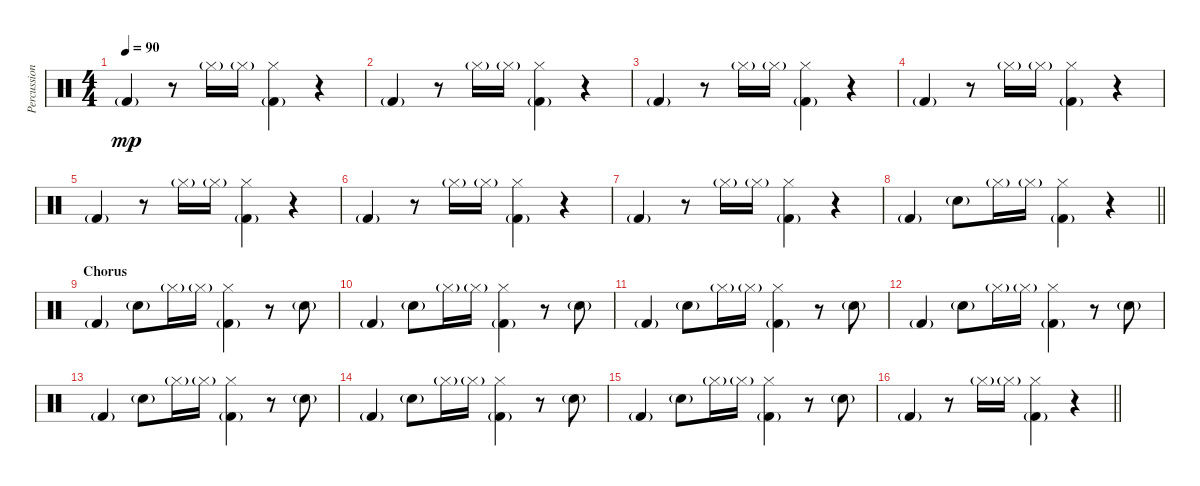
\track ("Percussion" "Percussion") {instrument percussion}
\staff {score}
\articulation defaults
\ts (4 4)
\tempo 90
\clef neutral
\ks c "Kick (hit) 2"{g}.4{dy mp}
r.8 "Hi-Hat (closed)"{g}.16 "Hi-Hat (closed)"{g}.16 ("Hi-Hat (closed)" "Kick (hit) 2"{g}).4 r.4 |
"Kick (hit) 2"{g}.4 r.8 "Hi-Hat (closed)"{g}.16 "Hi-Hat (closed)"{g}.16 ("Hi-Hat (closed)" "Kick (hit) 2"{g}).4 r.4 |
"Kick (hit) 2"{g}.4 r.8 "Hi-Hat (closed)"{g}.16 "Hi-Hat (closed)"{g}.16 ("Hi-Hat (closed)" "Kick (hit) 2"{g}).4 r.4 |
"Kick (hit) 2"{g}.4 r.8 "Hi-Hat (closed)"{g}.16 "Hi-Hat (closed)"{g}.16 ("Hi-Hat (closed)" "Kick (hit) 2"{g}).4 r.4 |
"Kick (hit) 2"{g}.4 r.8 "Hi-Hat (closed)"{g}.16 "Hi-Hat (closed)"{g}.16 ("Hi-Hat (closed)" "Kick (hit) 2"{g}).4 r.4 |
"Kick (hit) 2"{g}.4 r.8 "Hi-Hat (closed)"{g}.16 "Hi-Hat (closed)"{g}.16 ("Hi-Hat (closed)" "Kick (hit) 2"{g}).4 r.4 |
"Kick (hit) 2"{g}.4 r.8 "Hi-Hat (closed)"{g}.16 "Hi-Hat (closed)"{g}.16 ("Hi-Hat (closed)" "Kick (hit) 2"{g}).4 r.4 |
\barLineRight lightlight "Kick (hit) 2"{g}.4 "Snare (hit) 2"{g}.8 "Hi-Hat (closed)"{g}.16 "Hi-Hat (closed)"{g}.16
("Hi-Hat (closed)" "Kick (hit) 2"{g}).4 r.4 |
\section ("" "Chorus")
"Kick (hit) 2"{g}.4 "Snare (hit) 2"{g}.8 "Hi-Hat (closed)"{g}.16 "Hi-Hat (closed)"{g}.16 ("Hi-Hat (closed)" "Kick (hit) 2"{g}).4 r.8 "Hand Clap (hit)"{g}.8 |
"Kick (hit) 2"{g}.4 "Snare (hit) 2"{g}.8 "Hi-Hat (closed)"{g}.16 "Hi-Hat (closed)"{g}.16 ("Hi-Hat (closed)" "Kick (hit) 2"{g}).4 r.8 "Hand Clap (hit)"{g}.8 |
"Kick (hit) 2"{g}.4 "Snare (hit) 2"{g}.8 "Hi-Hat (closed)"{g}.16 "Hi-Hat (closed)"{g}.16 ("Hi-Hat (closed)" "Kick (hit) 2"{g}).4 r.8 "Hand Clap (hit)"{g}.8 |
"Kick (hit) 2"{g}.4 "Snare (hit) 2"{g}.8 "Hi-Hat (closed)"{g}.16 "Hi-Hat (closed)"{g}.16 ("Hi-Hat (closed)" "Kick (hit) 2"{g}).4 r.8 "Hand Clap (hit)"{g}.8 |
"Kick (hit) 2"{g}.4 "Snare (hit) 2"{g}.8 "Hi-Hat (closed)"{g}.16 "Hi-Hat (closed)"{g}.16 ("Hi-Hat (closed)" "Kick (hit) 2"{g}).4 r.8 "Hand Clap (hit)"{g}.8 |
"Kick (hit) 2"{g}.4 "Snare (hit) 2"{g}.8 "Hi-Hat (closed)"{g}.16 "Hi-Hat (closed)"{g}.16 ("Hi-Hat (closed)" "Kick (hit) 2"{g}).4 r.8 "Hand Clap (hit)"{g}.8 |
"Kick (hit) 2"{g}.4 "Snare (hit) 2"{g}.8 "Hi-Hat (closed)"{g}.16 "Hi-Hat (closed)"{g}.16 ("Hi-Hat (closed)" "Kick (hit) 2"{g}).4 r.8 "Hand Clap (hit)"{g}.8 |
\barLineRight lightlight "Kick (hit) 2"{g}.4
r.8 "Hi-Hat (closed)"{g}.16 "Hi-Hat (closed)"{g}.16 ("Hi-Hat (closed)" "Kick (hit) 2"{g}).4 r.4
